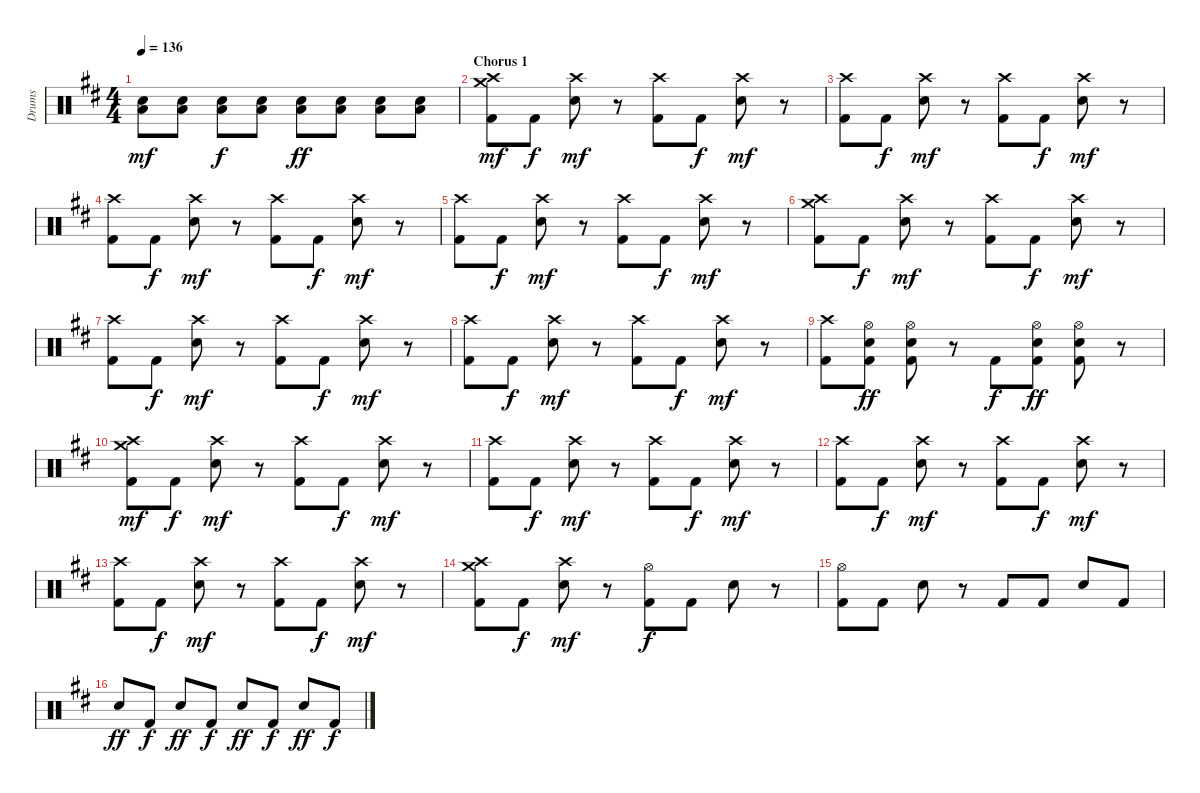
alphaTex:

\track ("Drums" "Drums") {instrument percussion}
\staff {score}
\articulation defaults
\ts (4 4)
\tempo 136
\clef neutral
\ks d
("Low Tom (hit)" "Electric Snare (hit)").8{dy mf} ("Low Tom (hit)" "Electric Snare (hit)").8 ("Low Tom (hit)" "Electric Snare (hit)").8{dy f} ("Low Tom (hit)" "Electric Snare (hit)").8 ("Low Tom (hit)" "Electric Snare (hit)").8{dy ff} ("Low Tom (hit)" "Electric Snare (hit)").8 ("Low Tom (hit)" "Electric Snare (hit)").8 ("Low Tom (hit)" "Electric Snare (hit)").8 |
\section ("" "Chorus 1")
("Crash medium (hit)" "Crash high (hit)" "Kick (hit) 2").8{dy mf} "Kick (hit) 2".8{dy f} ("Crash high (hit)" "Electric Snare (hit)").8{dy mf} r.8 ("Crash high (hit)" "Kick (hit) 2").8 "Kick (hit) 2".8{dy f} ("Crash high (hit)" "Electric Snare (hit)").8{dy mf} r.8 |
("Crash high (hit)" "Kick (hit) 2").8 "Kick (hit) 2".8{dy f} ("Crash high (hit)" "Electric Snare (hit)").8{dy mf} r.8 ("Crash high (hit)" "Kick (hit) 2").8 "Kick (hit) 2".8{dy f} ("Crash high (hit)" "Electric Snare (hit)").8{dy mf} r.8 |
("Crash high (hit)" "Kick (hit) 2").8 "Kick (hit) 2".8{dy f} ("Crash high (hit)" "Electric Snare (hit)").8{dy mf} r.8 ("Crash high (hit)" "Kick (hit) 2").8 "Kick (hit) 2".8{dy f} ("Crash high (hit)" "Electric Snare (hit)").8{dy mf} r.8 |
("Crash high (hit)" "Kick (hit) 2").8 "Kick (hit) 2".8{dy f} ("Crash high (hit)" "Electric Snare (hit)").8{dy mf} r.8 ("Crash high (hit)" "Kick (hit) 2").8 "Kick (hit) 2".8{dy f} ("Crash high (hit)" "Electric Snare (hit)").8{dy mf} r.8 |
("Crash medium (hit)" "Crash high (hit)" "Kick (hit) 2").8 "Kick (hit) 2".8{dy f} ("Crash high (hit)" "Electric Snare (hit)").8{dy mf} r.8 ("Crash high (hit)" "Kick (hit) 2").8 "Kick (hit) 2".8{dy f} ("Crash high (hit)" "Electric Snare (hit)").8{dy mf} r.8 |
("Crash high (hit)" "Kick (hit) 2").8 "Kick (hit) 2".8{dy f} ("Crash high (hit)" "Electric Snare (hit)").8{dy mf} r.8 ("Crash high (hit)" "Kick (hit) 2").8 "Kick (hit) 2".8{dy f} ("Crash high (hit)" "Electric Snare (hit)").8{dy mf} r.8 |
("Crash high (hit)" "Kick (hit) 2").8 "Kick (hit) 2".8{dy f} ("Crash high (hit)" "Electric Snare (hit)").8{dy mf} r.8 ("Crash high (hit)" "Kick (hit) 2").8 "Kick (hit) 2".8{dy f} ("Crash high (hit)" "Electric Snare (hit)").8{dy mf} r.8 |
("Crash high (hit)" "Kick (hit) 2").8 ("Hi-Hat (open)" "Electric Snare (hit)" "Kick (hit) 2").8{dy ff} ("Hi-Hat (open)" "Electric Snare (hit)" "Kick (hit) 2").8 r.8 "Kick (hit) 2".8{dy f} ("Hi-Hat (open)" "Electric Snare (hit)" "Kick (hit) 2").8{dy ff} ("Hi-Hat (open)" "Electric Snare (hit)" "Kick (hit) 2").8 r.8 |
("Crash medium (hit)" "Crash high (hit)" "Kick (hit) 2").8{dy mf} "Kick (hit) 2".8{dy f} ("Crash high (hit)" "Electric Snare (hit)").8{dy mf} r.8 ("Crash high (hit)" "Kick (hit) 2").8 "Kick (hit) 2".8{dy f} ("Crash high (hit)" "Electric Snare (hit)").8{dy mf} r.8 |
("Crash high (hit)" "Kick (hit) 2").8 "Kick (hit) 2".8{dy f} ("Crash high (hit)" "Electric Snare (hit)").8{dy mf} r.8 ("Crash high (hit)" "Kick (hit) 2").8 "Kick (hit) 2".8{dy f} ("Crash high (hit)" "Electric Snare (hit)").8{dy mf} r.8 |
("Crash high (hit)" "Kick (hit) 2").8 "Kick (hit) 2".8{dy f} ("Crash high (hit)" "Electric Snare (hit)").8{dy mf} r.8 ("Crash high (hit)" "Kick (hit) 2").8 "Kick (hit) 2".8{dy f} ("Crash high (hit)" "Electric Snare (hit)").8{dy mf} r.8 |
("Crash high (hit)" "Kick (hit) 2").8 "Kick (hit) 2".8{dy f} ("Crash high (hit)" "Electric Snare (hit)").8{dy mf} r.8 ("Crash high (hit)" "Kick (hit) 2").8 "Kick (hit) 2".8{dy f} ("Crash high (hit)" "Electric Snare (hit)").8{dy mf} r.8 |
("Crash medium (hit)" "Crash high (hit)" "Kick (hit) 2").8 "Kick (hit) 2".8{dy f} ("Crash high (hit)" "Electric Snare (hit)").8{dy mf} r.8 ("Hi-Hat (open)" "Kick (hit) 2").8{dy f} "Kick (hit) 2".8 "Electric Snare (hit)".8 r.8 |
("Hi-Hat (open)" "Kick (hit) 2").8 "Kick (hit) 2".8 "Electric Snare (hit)".8 r.8 "Kick (hit) 2".8 "Kick (hit) 2".8 "Electric Snare (hit)".8 "Kick (hit) 2".8 |
"Electric Snare (hit)".8{dy ff} "Kick (hit) 2".8{dy f} "Electric Snare (hit)".8{dy ff} "Kick (hit) 2".8{dy f} "Electric Snare (hit)".8{dy ff} "Kick (hit) 2".8{dy f} "Electric Snare (hit)".8{dy ff} "Kick (hit) 2".8{dy f}
